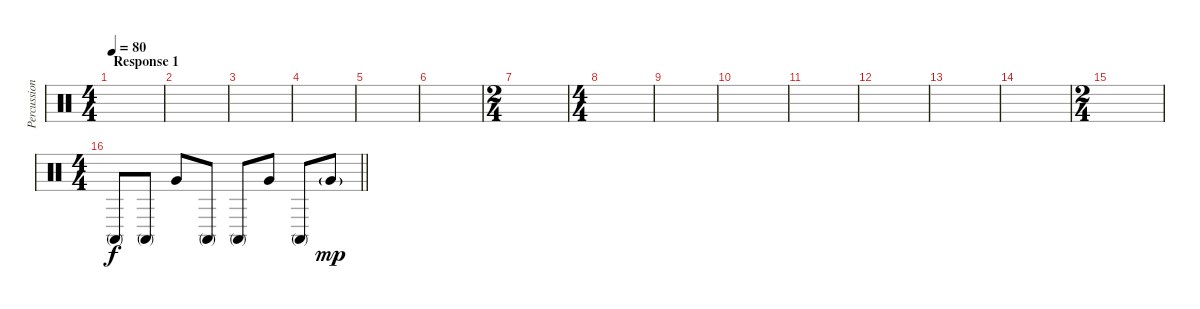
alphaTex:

\track ("Percussion" "Percussion") {instrument percussion}
\staff {score}
\articulation defaults
\ts (4 4)
\section ("" "Response 1")
\tempo 80
\clef neutral
\ks c
|
|
|
|
|
|
\ts (2 4)
|
\ts (4 4)
|
|
|
|
|
|
|
\ts (2 4)
|
\ts (4 4)
\barLineRight lightlight "Conga high (mute)".8 "Conga high (mute)".8 "Very Low Tom (hit)".8 "Conga high (mute)".8 "Conga high (mute)".8 "Very Low Tom (hit)".8 "Conga high (mute)".8 "Very Low Tom (hit)"{g}.8{dy mp}
